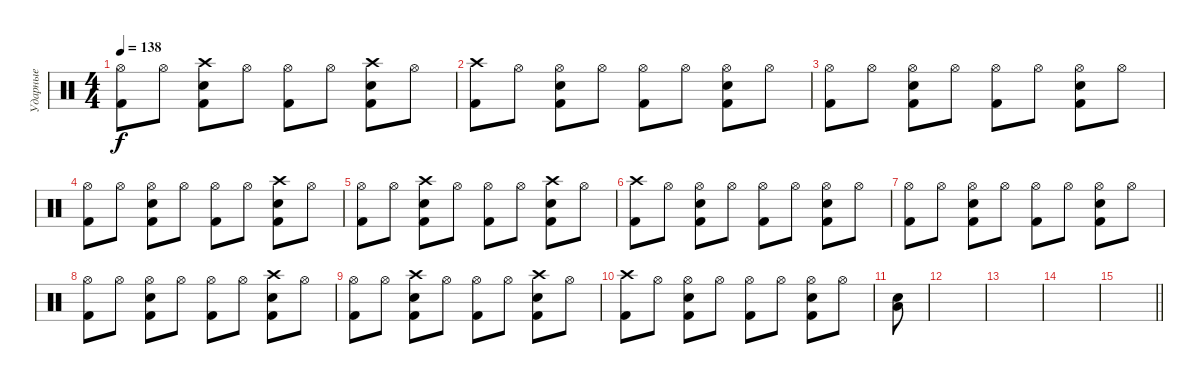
\track ("Ударные" "Ударные") {instrument percussion}
\staff {score}
\articulation defaults
\ts (4 4)
\tempo 138
\clef neutral
\ks c
("Hi-Hat (open)" "Kick (hit) 2").8{dy f} "Hi-Hat (open)".8 ("Crash high (hit)" "Electric Snare (hit)" "Kick (hit) 2").8 "Hi-Hat (open)".8 ("Hi-Hat (open)" "Kick (hit) 2").8 "Hi-Hat (open)".8 ("Crash high (hit)" "Electric Snare (hit)" "Kick (hit) 2").8 "Hi-Hat (open)".8 |
("Crash high (hit)" "Kick (hit) 2").8 "Hi-Hat (open)".8 ("Hi-Hat (open)" "Electric Snare (hit)" "Kick (hit) 2").8 "Hi-Hat (open)".8 ("Hi-Hat (open)" "Kick (hit) 2").8 "Hi-Hat (open)".8 ("Hi-Hat (open)" "Electric Snare (hit)" "Kick (hit) 2").8 "Hi-Hat (open)".8 |
("Hi-Hat (open)" "Kick (hit) 2").8 "Hi-Hat (open)".8 ("Hi-Hat (open)" "Electric Snare (hit)" "Kick (hit) 2").8 "Hi-Hat (open)".8 ("Hi-Hat (open)" "Kick (hit) 2").8 "Hi-Hat (open)".8 ("Hi-Hat (open)" "Electric Snare (hit)" "Kick (hit) 2").8 "Hi-Hat (open)".8 |
("Hi-Hat (open)" "Kick (hit) 2").8 "Hi-Hat (open)".8 ("Hi-Hat (open)" "Electric Snare (hit)" "Kick (hit) 2").8 "Hi-Hat (open)".8 ("Hi-Hat (open)" "Kick (hit) 2").8 "Hi-Hat (open)".8 ("Crash high (hit)" "Electric Snare (hit)" "Kick (hit) 2").8 "Hi-Hat (open)".8 |
("Hi-Hat (open)" "Kick (hit) 2").8 "Hi-Hat (open)".8 ("Crash high (hit)" "Electric Snare (hit)" "Kick (hit) 2").8 "Hi-Hat (open)".8 ("Hi-Hat (open)" "Kick (hit) 2").8 "Hi-Hat (open)".8 ("Crash high (hit)" "Electric Snare (hit)" "Kick (hit) 2").8 "Hi-Hat (open)".8 |
("Crash high (hit)" "Kick (hit) 2").8 "Hi-Hat (open)".8 ("Hi-Hat (open)" "Electric Snare (hit)" "Kick (hit) 2").8 "Hi-Hat (open)".8 ("Hi-Hat (open)" "Kick (hit) 2").8 "Hi-Hat (open)".8 ("Hi-Hat (open)" "Electric Snare (hit)" "Kick (hit) 2").8 "Hi-Hat (open)".8 |
("Hi-Hat (open)" "Kick (hit) 2").8 "Hi-Hat (open)".8 ("Hi-Hat (open)" "Electric Snare (hit)" "Kick (hit) 2").8 "Hi-Hat (open)".8 ("Hi-Hat (open)" "Kick (hit) 2").8 "Hi-Hat (open)".8 ("Hi-Hat (open)" "Electric Snare (hit)" "Kick (hit) 2").8 "Hi-Hat (open)".8 |
("Hi-Hat (open)" "Kick (hit) 2").8 "Hi-Hat (open)".8 ("Hi-Hat (open)" "Electric Snare (hit)" "Kick (hit) 2").8 "Hi-Hat (open)".8 ("Hi-Hat (open)" "Kick (hit) 2").8 "Hi-Hat (open)".8 ("Crash high (hit)" "Electric Snare (hit)" "Kick (hit) 2").8 "Hi-Hat (open)".8 |
("Hi-Hat (open)" "Kick (hit) 2").8 "Hi-Hat (open)".8 ("Crash high (hit)" "Electric Snare (hit)" "Kick (hit) 2").8 "Hi-Hat (open)".8 ("Hi-Hat (open)" "Kick (hit) 2").8 "Hi-Hat (open)".8 ("Crash high (hit)" "Electric Snare (hit)" "Kick (hit) 2").8 "Hi-Hat (open)".8 |
("Crash high (hit)" "Kick (hit) 2").8 "Hi-Hat (open)".8 ("Hi-Hat (open)" "Electric Snare (hit)" "Kick (hit) 2").8 "Hi-Hat (open)".8 ("Hi-Hat (open)" "Kick (hit) 2").8 "Hi-Hat (open)".8 ("Hi-Hat (open)" "Electric Snare (hit)" "Kick (hit) 2").8 "Hi-Hat (open)".8 |
("Electric Snare (hit)" "Low Tom (hit)").8 |
|
|
|
\barLineRight lightlight
